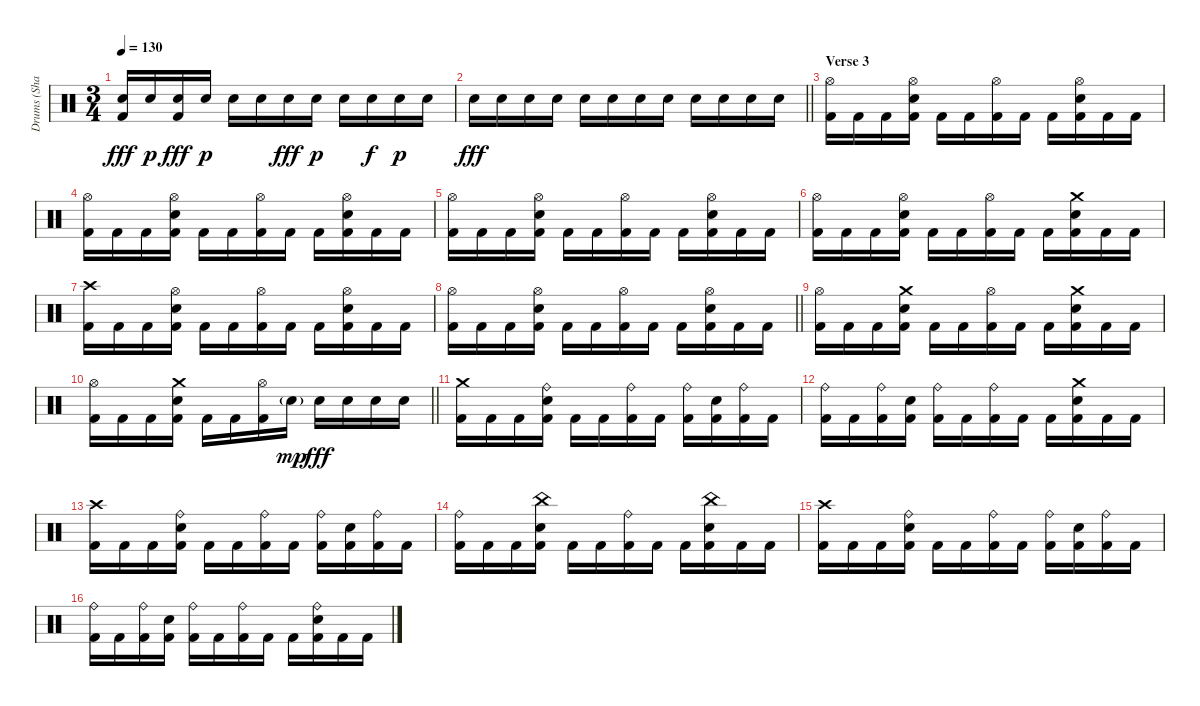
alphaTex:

\track ("Drums (Shawn)" "Drums (Sha") {instrument percussion}
\staff {score}
\articulation defaults
\ts (3 4)
\tempo 130
\clef neutral
\ks c
("Snare (hit) 2" "Kick (hit) 2").16{dy fff} "Snare (hit) 2".16{dy p} ("Snare (hit) 2" "Kick (hit) 2").16{dy fff} "Snare (hit) 2".16{dy p} "Snare (hit) 2".16 "Snare (hit) 2".16 "Snare (hit) 2".16{dy fff} "Snare (hit) 2".16{dy p} "Snare (hit) 2".16 "Snare (hit) 2".16{dy f} "Snare (hit) 2".16{dy p} "Snare (hit) 2".16 |
\barLineRight lightlight "Snare (hit) 2".16{dy fff} "Snare (hit) 2".16 "Snare (hit) 2".16 "Snare (hit) 2".16 "Snare (hit) 2".16 "Snare (hit) 2".16 "Snare (hit) 2".16 "Snare (hit) 2".16 "Snare (hit) 2".16 "Snare (hit) 2".16 "Snare (hit) 2".16 "Snare (hit) 2".16
|
\section ("" "Verse 3")
("Hi-Hat (open)" "Kick (hit) 2").16 "Kick (hit) 2".16 "Kick (hit) 2".16 ("Hi-Hat (open)" "Snare (hit) 2" "Kick (hit) 2").16 "Kick (hit) 2".16 "Kick (hit) 2".16 ("Hi-Hat (open)" "Kick (hit) 2").16 "Kick (hit) 2".16 "Kick (hit) 2".16 ("Hi-Hat (open)" "Snare (hit) 2" "Kick (hit) 2").16 "Kick (hit) 2".16 "Kick (hit) 2".16 |
("Hi-Hat (open)" "Kick (hit) 2").16 "Kick (hit) 2".16 "Kick (hit) 2".16 ("Hi-Hat (open)" "Snare (hit) 2" "Kick (hit) 2").16 "Kick (hit) 2".16 "Kick (hit) 2".16 ("Hi-Hat (open)" "Kick (hit) 2").16 "Kick (hit) 2".16 "Kick (hit) 2".16 ("Hi-Hat (open)" "Snare (hit) 2" "Kick (hit) 2").16 "Kick (hit) 2".16 "Kick (hit) 2".16 |
("Hi-Hat (open)" "Kick (hit) 2").16 "Kick (hit) 2".16 "Kick (hit) 2".16 ("Hi-Hat (open)" "Snare (hit) 2" "Kick (hit) 2").16 "Kick (hit) 2".16 "Kick (hit) 2".16 ("Hi-Hat (open)" "Kick (hit) 2").16 "Kick (hit) 2".16 "Kick (hit) 2".16 ("Hi-Hat (open)" "Snare (hit) 2" "Kick (hit) 2").16 "Kick (hit) 2".16 "Kick (hit) 2".16 |
("Hi-Hat (open)" "Kick (hit) 2").16 "Kick (hit) 2".16 "Kick (hit) 2".16 ("Hi-Hat (open)" "Snare (hit) 2" "Kick (hit) 2").16 "Kick (hit) 2".16 "Kick (hit) 2".16 ("Hi-Hat (open)" "Kick (hit) 2").16 "Kick (hit) 2".16 "Kick (hit) 2".16 ("Crash medium (hit)" "Snare (hit) 2" "Kick (hit) 2").16 "Kick (hit) 2".16 "Kick (hit) 2".16 |
("Crash high (hit)" "Kick (hit) 2").16 "Kick (hit) 2".16 "Kick (hit) 2".16 ("Hi-Hat (open)" "Snare (hit) 2" "Kick (hit) 2").16 "Kick (hit) 2".16 "Kick (hit) 2".16 ("Hi-Hat (open)" "Kick (hit) 2").16 "Kick (hit) 2".16 "Kick (hit) 2".16 ("Hi-Hat (open)" "Snare (hit) 2" "Kick (hit) 2").16 "Kick (hit) 2".16 "Kick (hit) 2".16 |
\barLineRight lightlight
("Hi-Hat (open)" "Kick (hit) 2").16 "Kick (hit) 2".16 "Kick (hit) 2".16 ("Hi-Hat (open)" "Snare (hit) 2" "Kick (hit) 2").16 "Kick (hit) 2".16 "Kick (hit) 2".16 ("Hi-Hat (open)" "Kick (hit) 2").16 "Kick (hit) 2".16 "Kick (hit) 2".16 ("Hi-Hat (open)" "Snare (hit) 2" "Kick (hit) 2").16 "Kick (hit) 2".16 "Kick (hit) 2".16 |
("Hi-Hat (open)" "Kick (hit) 2").16 "Kick (hit) 2".16 "Kick (hit) 2".16 ("Crash medium (hit)" "Snare (hit) 2" "Kick (hit) 2").16 "Kick (hit) 2".16 "Kick (hit) 2".16 ("Hi-Hat (open)" "Kick (hit) 2").16 "Kick (hit) 2".16 "Kick (hit) 2".16 ("Crash medium (hit)" "Snare (hit) 2" "Kick (hit) 2").16 "Kick (hit) 2".16 "Kick (hit) 2".16 |
\barLineRight lightlight
("Hi-Hat (open)" "Kick (hit) 2").16 "Kick (hit) 2".16 "Kick (hit) 2".16 ("Crash medium (hit)" "Snare (hit) 2" "Kick (hit) 2").16 "Kick (hit) 2".16 "Kick (hit) 2".16 ("Hi-Hat (open)" "Kick (hit) 2").16 "Snare (hit) 2"{g}.16{dy mp} "Snare (hit) 2".16{dy fff} "Snare (hit) 2".16 "Snare (hit) 2".16 "Snare (hit) 2".16 |
("Crash medium (hit)" "Kick (hit) 2").16 "Kick (hit) 2".16 "Kick (hit) 2".16 ("Ride (bell)" "Snare (hit) 2" "Kick (hit) 2").16 "Kick (hit) 2".16 "Kick (hit) 2".16 ("Ride (bell)" "Kick (hit) 2").16 "Kick (hit) 2".16 ("Ride (bell)" "Kick (hit) 2").16 ("Snare (hit) 2" "Kick (hit) 2").16 ("Ride (bell)" "Kick (hit) 2").16 "Kick (hit) 2".16 |
("Ride (bell)" "Kick (hit) 2").16 "Kick (hit) 2".16 ("Ride (bell)" "Kick (hit) 2").16 ("Snare (hit) 2" "Kick (hit) 2").16 ("Ride (bell)" "Kick (hit) 2").16 "Kick (hit) 2".16 ("Ride (bell)" "Kick (hit) 2").16 "Kick (hit) 2".16 "Kick (hit) 2".16 ("Crash medium (hit)" "Snare (hit) 2" "Kick (hit) 2").16 "Kick (hit) 2".16 "Kick (hit) 2".16 |
("Crash high (hit)" "Kick (hit) 2").16 "Kick (hit) 2".16 "Kick (hit) 2".16 ("Ride (bell)" "Snare (hit) 2" "Kick (hit) 2").16 "Kick (hit) 2".16 "Kick (hit) 2".16 ("Ride (bell)" "Kick (hit) 2").16 "Kick (hit) 2".16 ("Ride (bell)" "Kick (hit) 2").16 ("Snare (hit) 2" "Kick (hit) 2").16 ("Ride (bell)" "Kick (hit) 2").16 "Kick (hit) 2".16 |
("Ride (bell)" "Kick (hit) 2").16 "Kick (hit) 2".16 "Kick (hit) 2".16 ("China (hit)" "Snare (hit) 2" "Kick (hit) 2").16 "Kick (hit) 2".16 "Kick (hit) 2".16 ("Ride (bell)" "Kick (hit) 2").16 "Kick (hit) 2".16 "Kick (hit) 2".16 ("China (hit)" "Snare (hit) 2" "Kick (hit) 2").16 "Kick (hit) 2".16 "Kick (hit) 2".16 |
("Crash high (hit)" "Kick (hit) 2").16 "Kick (hit) 2".16 "Kick (hit) 2".16 ("Ride (bell)" "Snare (hit) 2" "Kick (hit) 2").16 "Kick (hit) 2".16 "Kick (hit) 2".16 ("Ride (bell)" "Kick (hit) 2").16 "Kick (hit) 2".16 ("Ride (bell)" "Kick (hit) 2").16 ("Snare (hit) 2" "Kick (hit) 2").16 ("Ride (bell)" "Kick (hit) 2").16 "Kick (hit) 2".16 |
("Ride (bell)" "Kick (hit) 2").16 "Kick (hit) 2".16 ("Ride (bell)" "Kick (hit) 2").16 ("Snare (hit) 2" "Kick (hit) 2").16 ("Ride (bell)" "Kick (hit) 2").16 "Kick (hit) 2".16 ("Ride (bell)" "Kick (hit) 2").16 "Kick (hit) 2".16 "Kick (hit) 2".16 ("Ride (bell)" "Snare (hit) 2" "Kick (hit) 2").16 "Kick (hit) 2".16 "Kick (hit) 2".16
